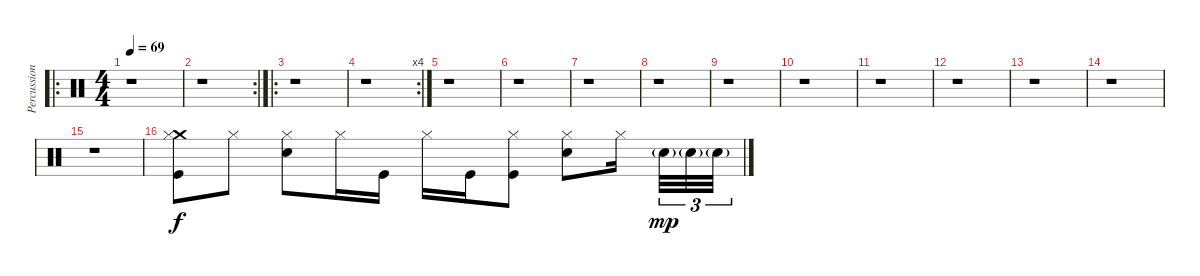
\track ("Percussion" "Percussion") {instrument percussion}
\staff {score}
\articulation defaults
\ro
\ts (4 4)
\tempo 69
\clef neutral
\ks c
r.1{dy f} |
\rc 2
r.1 |
\ro
r.1 |
\rc 4
r.1 |
r.1 |
r.1 |
r.1 |
r.1 |
r.1 |
r.1 |
r.1 |
r.1 |
r.1 |
r.1 |
r.1 |
("Crash medium (hit)" "Kick (hit)" "Hi-Hat (closed)").8 "Hi-Hat (closed)".8 ("Electric Snare (hit)" "Hi-Hat (closed)").8 "Hi-Hat (closed)".16 "Kick (hit)".16 "Hi-Hat (closed)".16 "Kick (hit)".16 ("Kick (hit)" "Hi-Hat (closed)").8 ("Electric Snare (hit)" "Hi-Hat (closed)").8 "Hi-Hat (closed)".16{beam splitsecondary} "Electric Snare (hit)"{g}.32{tu (3 2) dy mp} "Electric Snare (hit)"{g}.32{tu (3 2)} "Electric Snare (hit)"{g}.32{tu (3 2)}
